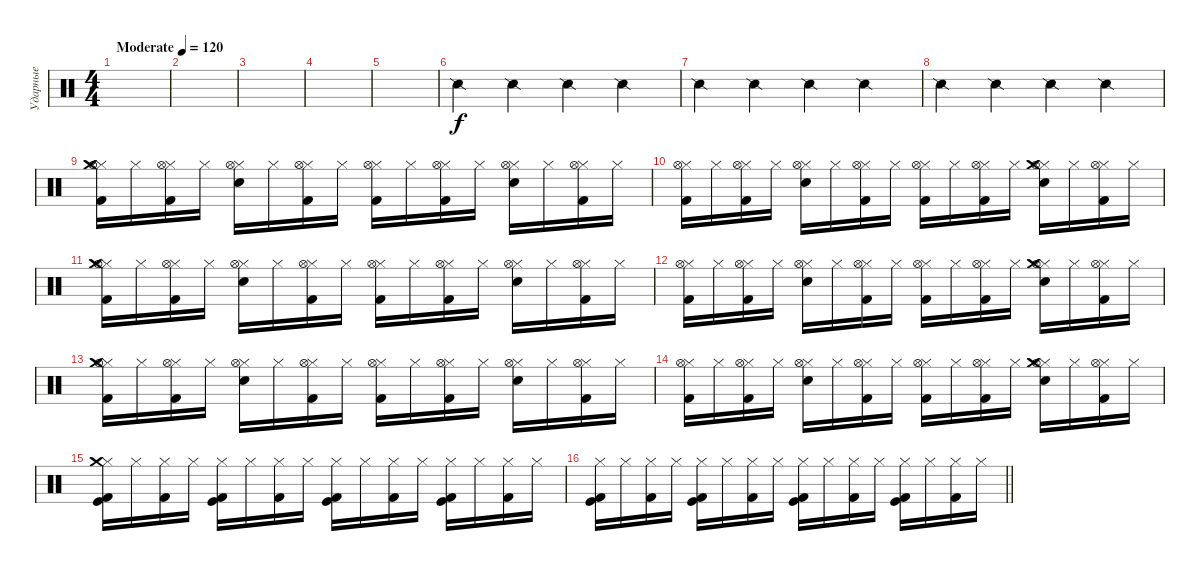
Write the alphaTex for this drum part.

\track ("Ударные" "Ударные") {instrument percussion}
\staff {score}
\articulation defaults
\ts (4 4)
\tempo (120 "Moderate")
\clef neutral
\ks c
|
|
|
|
|
"Snare (side stick) 2".4 "Snare (side stick) 2".4 "Snare (side stick) 2".4 "Snare (side stick) 2".4 |
"Snare (side stick) 2".4 "Snare (side stick) 2".4 "Snare (side stick) 2".4 "Snare (side stick) 2".4 |
"Snare (side stick) 2".4 "Snare (side stick) 2".4 "Snare (side stick) 2".4 "Snare (side stick) 2".4 |
("Hi-Hat (closed)" "Crash medium (hit)" "Hi-Hat (open)" "Kick (hit) 2").16 "Hi-Hat (closed)".16 ("Hi-Hat (closed)" "Hi-Hat (open)" "Kick (hit) 2").16 "Hi-Hat (closed)".16 ("Hi-Hat (closed)" "Snare (hit) 2" "Hi-Hat (open)").16 "Hi-Hat (closed)".16 ("Hi-Hat (closed)" "Hi-Hat (open)" "Kick (hit) 2").16 "Hi-Hat (closed)".16 ("Hi-Hat (closed)" "Hi-Hat (open)" "Kick (hit) 2").16 "Hi-Hat (closed)".16 ("Hi-Hat (closed)" "Hi-Hat (open)" "Kick (hit) 2").16 "Hi-Hat (closed)".16 ("Hi-Hat (closed)" "Snare (hit) 2" "Hi-Hat (open)").16 "Hi-Hat (closed)".16 ("Hi-Hat (closed)" "Hi-Hat (open)" "Kick (hit) 2").16 "Hi-Hat (closed)".16 |
("Hi-Hat (closed)" "Hi-Hat (open)" "Kick (hit) 2").16 "Hi-Hat (closed)".16 ("Hi-Hat (closed)" "Hi-Hat (open)" "Kick (hit) 2").16 "Hi-Hat (closed)".16 ("Hi-Hat (closed)" "Snare (hit) 2" "Hi-Hat (open)").16 "Hi-Hat (closed)".16 ("Hi-Hat (closed)" "Hi-Hat (open)" "Kick (hit) 2").16 "Hi-Hat (closed)".16 ("Hi-Hat (closed)" "Hi-Hat (open)" "Kick (hit) 2").16 "Hi-Hat (closed)".16 ("Hi-Hat (closed)" "Hi-Hat (open)" "Kick (hit) 2").16 "Hi-Hat (closed)".16 ("Hi-Hat (closed)" "Snare (hit) 2" "Hi-Hat (open)" "Crash medium (hit)").16 "Hi-Hat (closed)".16 ("Hi-Hat (closed)" "Hi-Hat (open)" "Kick (hit) 2").16 "Hi-Hat (closed)".16 |
("Hi-Hat (closed)" "Crash medium (hit)" "Hi-Hat (open)" "Kick (hit) 2").16 "Hi-Hat (closed)".16 ("Hi-Hat (closed)" "Hi-Hat (open)" "Kick (hit) 2").16 "Hi-Hat (closed)".16 ("Hi-Hat (closed)" "Snare (hit) 2" "Hi-Hat (open)").16 "Hi-Hat (closed)".16 ("Hi-Hat (closed)" "Hi-Hat (open)" "Kick (hit) 2").16 "Hi-Hat (closed)".16 ("Hi-Hat (closed)" "Hi-Hat (open)" "Kick (hit) 2").16 "Hi-Hat (closed)".16 ("Hi-Hat (closed)" "Hi-Hat (open)" "Kick (hit) 2").16 "Hi-Hat (closed)".16 ("Hi-Hat (closed)" "Snare (hit) 2" "Hi-Hat (open)").16 "Hi-Hat (closed)".16 ("Hi-Hat (closed)" "Hi-Hat (open)" "Kick (hit) 2").16 "Hi-Hat (closed)".16 |
("Hi-Hat (closed)" "Hi-Hat (open)" "Kick (hit) 2").16 "Hi-Hat (closed)".16 ("Hi-Hat (closed)" "Hi-Hat (open)" "Kick (hit) 2").16 "Hi-Hat (closed)".16 ("Hi-Hat (closed)" "Snare (hit) 2" "Hi-Hat (open)").16 "Hi-Hat (closed)".16 ("Hi-Hat (closed)" "Hi-Hat (open)" "Kick (hit) 2").16 "Hi-Hat (closed)".16 ("Hi-Hat (closed)" "Hi-Hat (open)" "Kick (hit) 2").16 "Hi-Hat (closed)".16 ("Hi-Hat (closed)" "Hi-Hat (open)" "Kick (hit) 2").16 "Hi-Hat (closed)".16 ("Hi-Hat (closed)" "Snare (hit) 2" "Hi-Hat (open)" "Crash medium (hit)").16 "Hi-Hat (closed)".16 ("Hi-Hat (closed)" "Hi-Hat (open)" "Kick (hit) 2").16 "Hi-Hat (closed)".16 |
("Hi-Hat (closed)" "Crash medium (hit)" "Hi-Hat (open)" "Kick (hit) 2").16 "Hi-Hat (closed)".16 ("Hi-Hat (closed)" "Hi-Hat (open)" "Kick (hit) 2").16 "Hi-Hat (closed)".16 ("Hi-Hat (closed)" "Snare (hit) 2" "Hi-Hat (open)").16 "Hi-Hat (closed)".16 ("Hi-Hat (closed)" "Hi-Hat (open)" "Kick (hit) 2").16 "Hi-Hat (closed)".16 ("Hi-Hat (closed)" "Hi-Hat (open)" "Kick (hit) 2").16 "Hi-Hat (closed)".16 ("Hi-Hat (closed)" "Hi-Hat (open)" "Kick (hit) 2").16 "Hi-Hat (closed)".16 ("Hi-Hat (closed)" "Snare (hit) 2" "Hi-Hat (open)").16 "Hi-Hat (closed)".16 ("Hi-Hat (closed)" "Hi-Hat (open)" "Kick (hit) 2").16 "Hi-Hat (closed)".16 |
("Hi-Hat (closed)" "Hi-Hat (open)" "Kick (hit) 2").16 "Hi-Hat (closed)".16 ("Hi-Hat (closed)" "Hi-Hat (open)" "Kick (hit) 2").16 "Hi-Hat (closed)".16 ("Hi-Hat (closed)" "Snare (hit) 2" "Hi-Hat (open)").16 "Hi-Hat (closed)".16 ("Hi-Hat (closed)" "Hi-Hat (open)" "Kick (hit) 2").16 "Hi-Hat (closed)".16 ("Hi-Hat (closed)" "Hi-Hat (open)" "Kick (hit) 2").16 "Hi-Hat (closed)".16 ("Hi-Hat (closed)" "Hi-Hat (open)" "Kick (hit) 2").16 "Hi-Hat (closed)".16 ("Hi-Hat (closed)" "Snare (hit) 2" "Hi-Hat (open)" "Crash medium (hit)").16 "Hi-Hat (closed)".16 ("Hi-Hat (closed)" "Hi-Hat (open)" "Kick (hit) 2").16 "Hi-Hat (closed)".16 |
("Hi-Hat (closed)" "Crash medium (hit)" "Kick (hit)" "Kick (hit) 2").16 "Hi-Hat (closed)".16 ("Hi-Hat (closed)" "Kick (hit) 2").16 "Hi-Hat (closed)".16 ("Hi-Hat (closed)" "Kick (hit)" "Kick (hit) 2").16 "Hi-Hat (closed)".16 ("Hi-Hat (closed)" "Kick (hit) 2").16 "Hi-Hat (closed)".16 ("Hi-Hat (closed)" "Kick (hit)" "Kick (hit) 2").16 "Hi-Hat (closed)".16 ("Hi-Hat (closed)" "Kick (hit) 2").16 "Hi-Hat (closed)".16 ("Hi-Hat (closed)" "Kick (hit)" "Kick (hit) 2").16 "Hi-Hat (closed)".16 ("Hi-Hat (closed)" "Kick (hit) 2").16 "Hi-Hat (closed)".16 |
\barLineRight lightlight
("Hi-Hat (closed)" "Kick (hit)" "Kick (hit) 2").16 "Hi-Hat (closed)".16 ("Hi-Hat (closed)" "Kick (hit) 2").16 "Hi-Hat (closed)".16 ("Hi-Hat (closed)" "Kick (hit)" "Kick (hit) 2").16 "Hi-Hat (closed)".16 ("Hi-Hat (closed)" "Kick (hit) 2").16 "Hi-Hat (closed)".16 ("Hi-Hat (closed)" "Kick (hit)" "Kick (hit) 2").16 "Hi-Hat (closed)".16 ("Hi-Hat (closed)" "Kick (hit) 2").16 "Hi-Hat (closed)".16 ("Hi-Hat (closed)" "Kick (hit)" "Kick (hit) 2").16 "Hi-Hat (closed)".16 ("Hi-Hat (closed)" "Kick (hit) 2").16 "Hi-Hat (closed)".16
